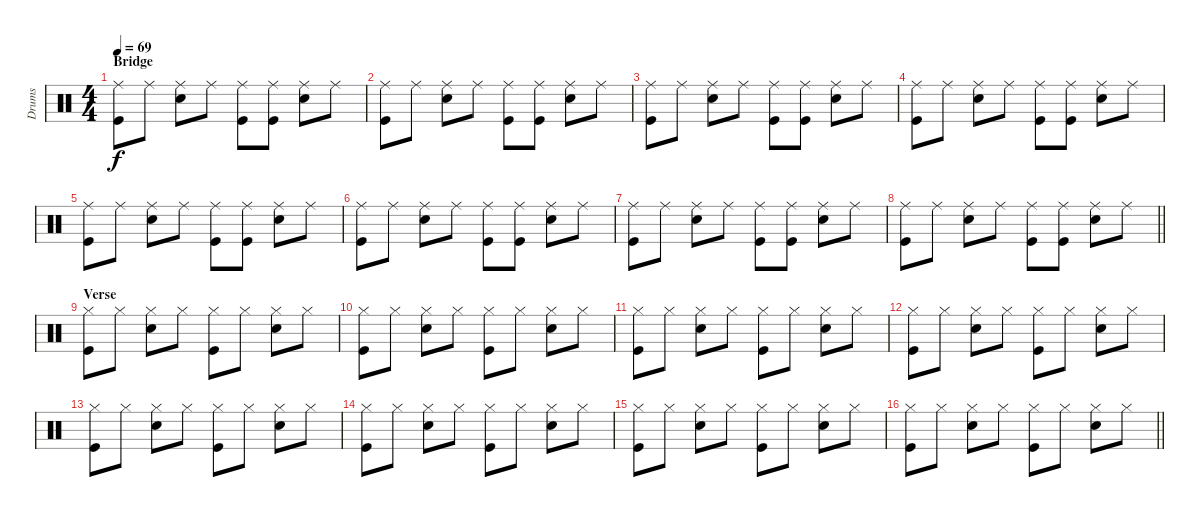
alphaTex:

\track ("Drums" "Drums") {instrument percussion}
\staff {score}
\articulation defaults
\ts (4 4)
\section ("" "Bridge")
\tempo 69
\clef neutral
\ks c
("Ride (middle)" "Kick (hit)").8{dy f} "Ride (middle)".8 ("Ride (middle)" "Snare (hit) 2").8 "Ride (middle)".8 ("Ride (middle)" "Kick (hit)").8 ("Ride (middle)" "Kick (hit)").8 ("Ride (middle)" "Snare (hit) 2").8 "Ride (middle)".8 |
("Ride (middle)" "Kick (hit)").8 "Ride (middle)".8 ("Ride (middle)" "Snare (hit) 2").8 "Ride (middle)".8 ("Ride (middle)" "Kick (hit)").8 ("Ride (middle)" "Kick (hit)").8 ("Ride (middle)" "Snare (hit) 2").8 "Ride (middle)".8 |
("Ride (middle)" "Kick (hit)").8 "Ride (middle)".8 ("Ride (middle)" "Snare (hit) 2").8 "Ride (middle)".8 ("Ride (middle)" "Kick (hit)").8 ("Ride (middle)" "Kick (hit)").8 ("Ride (middle)" "Snare (hit) 2").8 "Ride (middle)".8 |
("Ride (middle)" "Kick (hit)").8 "Ride (middle)".8 ("Ride (middle)" "Snare (hit) 2").8 "Ride (middle)".8 ("Ride (middle)" "Kick (hit)").8 ("Ride (middle)" "Kick (hit)").8 ("Ride (middle)" "Snare (hit) 2").8 "Ride (middle)".8 |
("Ride (middle)" "Kick (hit)").8 "Ride (middle)".8 ("Ride (middle)" "Snare (hit) 2").8 "Ride (middle)".8 ("Ride (middle)" "Kick (hit)").8 ("Ride (middle)" "Kick (hit)").8 ("Ride (middle)" "Snare (hit) 2").8 "Ride (middle)".8 |
("Ride (middle)" "Kick (hit)").8 "Ride (middle)".8 ("Ride (middle)" "Snare (hit) 2").8 "Ride (middle)".8 ("Ride (middle)" "Kick (hit)").8 ("Ride (middle)" "Kick (hit)").8 ("Ride (middle)" "Snare (hit) 2").8 "Ride (middle)".8 |
("Ride (middle)" "Kick (hit)").8 "Ride (middle)".8 ("Ride (middle)" "Snare (hit) 2").8 "Ride (middle)".8 ("Ride (middle)" "Kick (hit)").8 ("Ride (middle)" "Kick (hit)").8 ("Ride (middle)" "Snare (hit) 2").8 "Ride (middle)".8 |
\barLineRight lightlight
("Ride (middle)" "Kick (hit)").8 "Ride (middle)".8 ("Ride (middle)" "Snare (hit) 2").8 "Ride (middle)".8 ("Ride (middle)" "Kick (hit)").8 ("Ride (middle)" "Kick (hit)").8 ("Ride (middle)" "Snare (hit) 2").8 "Ride (middle)".8 |
\section ("" "Verse")
("Hi-Hat (closed)" "Kick (hit)").8 "Hi-Hat (closed)".8 ("Hi-Hat (closed)" "Snare (hit) 2").8 "Hi-Hat (closed)".8 ("Hi-Hat (closed)" "Kick (hit)").8 "Hi-Hat (closed)".8 ("Hi-Hat (closed)" "Snare (hit) 2").8 "Hi-Hat (closed)".8 |
("Hi-Hat (closed)" "Kick (hit)").8 "Hi-Hat (closed)".8 ("Hi-Hat (closed)" "Snare (hit) 2").8 "Hi-Hat (closed)".8 ("Hi-Hat (closed)" "Kick (hit)").8 "Hi-Hat (closed)".8 ("Hi-Hat (closed)" "Snare (hit) 2").8 "Hi-Hat (closed)".8 |
("Hi-Hat (closed)" "Kick (hit)").8 "Hi-Hat (closed)".8 ("Hi-Hat (closed)" "Snare (hit) 2").8 "Hi-Hat (closed)".8 ("Hi-Hat (closed)" "Kick (hit)").8 "Hi-Hat (closed)".8 ("Hi-Hat (closed)" "Snare (hit) 2").8 "Hi-Hat (closed)".8 |
("Hi-Hat (closed)" "Kick (hit)").8 "Hi-Hat (closed)".8 ("Hi-Hat (closed)" "Snare (hit) 2").8 "Hi-Hat (closed)".8 ("Hi-Hat (closed)" "Kick (hit)").8 "Hi-Hat (closed)".8 ("Hi-Hat (closed)" "Snare (hit) 2").8 "Hi-Hat (closed)".8 |
("Hi-Hat (closed)" "Kick (hit)").8 "Hi-Hat (closed)".8 ("Hi-Hat (closed)" "Snare (hit) 2").8 "Hi-Hat (closed)".8 ("Hi-Hat (closed)" "Kick (hit)").8 "Hi-Hat (closed)".8 ("Hi-Hat (closed)" "Snare (hit) 2").8 "Hi-Hat (closed)".8 |
("Hi-Hat (closed)" "Kick (hit)").8 "Hi-Hat (closed)".8 ("Hi-Hat (closed)" "Snare (hit) 2").8 "Hi-Hat (closed)".8 ("Hi-Hat (closed)" "Kick (hit)").8 "Hi-Hat (closed)".8 ("Hi-Hat (closed)" "Snare (hit) 2").8 "Hi-Hat (closed)".8 |
("Hi-Hat (closed)" "Kick (hit)").8 "Hi-Hat (closed)".8 ("Hi-Hat (closed)" "Snare (hit) 2").8 "Hi-Hat (closed)".8 ("Hi-Hat (closed)" "Kick (hit)").8 "Hi-Hat (closed)".8 ("Hi-Hat (closed)" "Snare (hit) 2").8 "Hi-Hat (closed)".8 |
\barLineRight lightlight
("Hi-Hat (closed)" "Kick (hit)").8 "Hi-Hat (closed)".8 ("Hi-Hat (closed)" "Snare (hit) 2").8 "Hi-Hat (closed)".8 ("Hi-Hat (closed)" "Kick (hit)").8 "Hi-Hat (closed)".8 ("Hi-Hat (closed)" "Snare (hit) 2").8 "Hi-Hat (closed)".8
